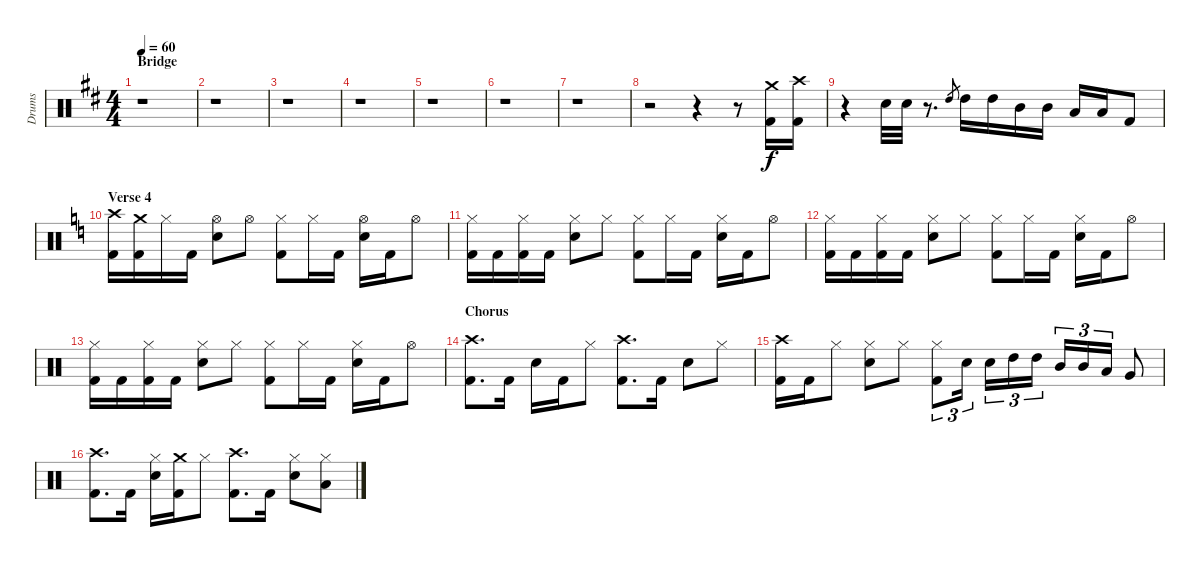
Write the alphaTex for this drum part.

\track ("Drums " "Drums ") {instrument percussion}
\staff {score}
\articulation defaults
\ts (4 4)
\section ("" "Bridge")
\tempo 60
\clef neutral
\ks bminor
r.1{dy f} |
r.1 |
r.1 |
r.1 |
r.1 |
r.1 |
r.1 |
r.2 r.4 r.8 ("Crash medium (hit)" "Kick (hit) 2").16 ("Crash high (hit)" "Kick (hit) 2").16 |
r.4 "Snare (hit) 2".32 "Snare (hit) 2".32 r.8{d} "High Tom (hit)".8{gr} "High Tom (hit)".16 "High Tom (hit)".16 "Mid Tom (hit)".16 "Mid Tom (hit)".16 "Low Tom (hit)".16 "Low Tom (hit)".16 "Kick (hit) 2".8 |
\section ("" "Verse 4")
\ks aminor
("Crash high (hit)" "Kick (hit) 2").16 ("Crash medium (hit)" "Kick (hit) 2").16 "Hi-Hat (closed)".16 "Kick (hit) 2".16 ("Hi-Hat (open)" "Snare (hit) 2").8 "Hi-Hat (open)".8 ("Hi-Hat (closed)" "Kick (hit) 2").8 "Hi-Hat (closed)".16 "Kick (hit) 2".16 ("Hi-Hat (open)" "Snare (hit) 2").16 "Kick (hit) 2".16 "Hi-Hat (open)".8 |
("Hi-Hat (closed)" "Kick (hit) 2").16 "Kick (hit) 2".16 ("Hi-Hat (closed)" "Kick (hit) 2").16 "Kick (hit) 2".16 ("Hi-Hat (closed)" "Snare (hit) 2").8 "Hi-Hat (closed)".8 ("Hi-Hat (closed)" "Kick (hit) 2").8 "Hi-Hat (closed)".16 "Kick (hit) 2".16 ("Hi-Hat (closed)" "Snare (hit) 2").16 "Kick (hit) 2".16 "Hi-Hat (open)".8 |
("Hi-Hat (closed)" "Kick (hit) 2").16 "Kick (hit) 2".16 ("Hi-Hat (closed)" "Kick (hit) 2").16 "Kick (hit) 2".16 ("Hi-Hat (closed)" "Snare (hit) 2").8 "Hi-Hat (closed)".8 ("Hi-Hat (closed)" "Kick (hit) 2").8 "Hi-Hat (closed)".16 "Kick (hit) 2".16 ("Hi-Hat (closed)" "Snare (hit) 2").16 "Kick (hit) 2".16 "Hi-Hat (open)".8 |
("Hi-Hat (closed)" "Kick (hit) 2").16 "Kick (hit) 2".16 ("Hi-Hat (closed)" "Kick (hit) 2").16 "Kick (hit) 2".16 ("Hi-Hat (closed)" "Snare (hit) 2").8 "Hi-Hat (closed)".8 ("Hi-Hat (closed)" "Kick (hit) 2").8 "Hi-Hat (closed)".16 "Kick (hit) 2".16 ("Hi-Hat (closed)" "Snare (hit) 2").16 "Kick (hit) 2".16 "Hi-Hat (open)".8 |
\section ("" "Chorus")
("Crash high (hit)" "Kick (hit) 2").8{d} "Kick (hit) 2".16 "Snare (hit) 2".16 "Kick (hit) 2".16 "Hi-Hat (closed)".8 ("Crash high (hit)" "Kick (hit) 2").8{d} "Kick (hit) 2".16 "Snare (hit) 2".8 "Hi-Hat (closed)".8 |
("Crash high (hit)" "Kick (hit) 2").16 "Kick (hit) 2".16 "Hi-Hat (closed)".8 ("Hi-Hat (closed)" "Snare (hit) 2").8 "Hi-Hat (closed)".8 ("Hi-Hat (closed)" "Kick (hit) 2").8{tu (3 2)} "Snare (hit) 2".16{tu (3 2)} "Snare (hit) 2".16{tu (3 2)} "High Tom (hit)".16{tu (3 2)} "High Tom (hit)".16{tu (3 2)} "Mid Tom (hit)".16{tu (3 2)} "Mid Tom (hit)".16{tu (3 2)} "Low Tom (hit)".16{tu (3 2)} "Very Low Tom (hit)".8 |
("Crash high (hit)" "Kick (hit) 2").8{d} "Kick (hit) 2".16 ("Hi-Hat (closed)" "Snare (hit) 2").16 ("Crash medium (hit)" "Kick (hit) 2").16 "Hi-Hat (closed)".8 ("Crash high (hit)" "Kick (hit) 2").8{d} "Kick (hit) 2".16 ("Hi-Hat (closed)" "Snare (hit) 2").8 ("Low Tom (hit)" "Hi-Hat (closed)").8
